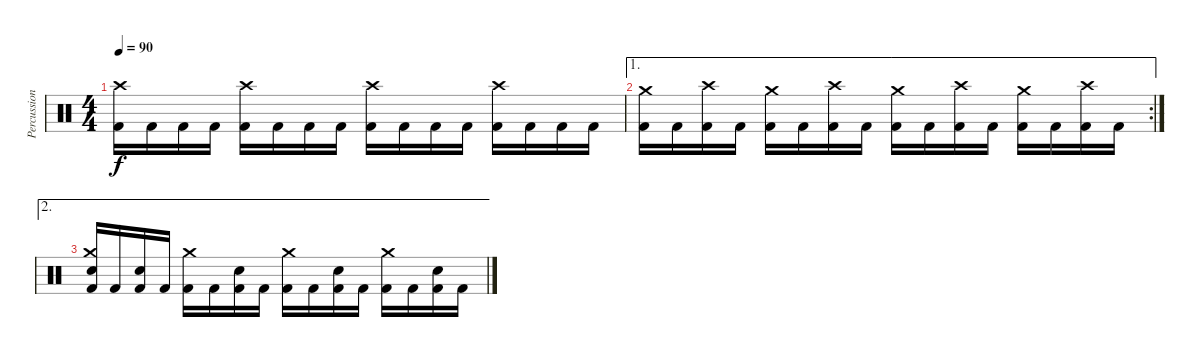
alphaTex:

\track ("Percussion" "Percussion") {instrument percussion}
\staff {score}
\articulation defaults
\ts (4 4)
\tempo 90
\clef neutral
\ks c
("Crash high (hit)" "Kick (hit) 2").16{dy f} "Kick (hit) 2".16 "Kick (hit) 2".16 "Kick (hit) 2".16 ("Crash high (hit)" "Kick (hit) 2").16 "Kick (hit) 2".16 "Kick (hit) 2".16 "Kick (hit) 2".16 ("Crash high (hit)" "Kick (hit) 2").16 "Kick (hit) 2".16 "Kick (hit) 2".16 "Kick (hit) 2".16 ("Crash high (hit)" "Kick (hit) 2").16 "Kick (hit) 2".16 "Kick (hit) 2".16 "Kick (hit) 2".16 |
\ae 1
\rc 2
("Crash medium (hit)" "Kick (hit) 2").16 "Kick (hit) 2".16 ("Crash high (hit)" "Kick (hit) 2").16 "Kick (hit) 2".16 ("Crash medium (hit)" "Kick (hit) 2").16 "Kick (hit) 2".16 ("Crash high (hit)" "Kick (hit) 2").16 "Kick (hit) 2".16 ("Crash medium (hit)" "Kick (hit) 2").16 "Kick (hit) 2".16 ("Crash high (hit)" "Kick (hit) 2").16 "Kick (hit) 2".16 ("Crash medium (hit)" "Kick (hit) 2").16 "Kick (hit) 2".16 ("Crash high (hit)" "Kick (hit) 2").16 "Kick (hit) 2".16 |
\ae 2
("Crash medium (hit)" "Electric Snare (hit)" "Kick (hit) 2").16 "Kick (hit) 2".16 ("Electric Snare (hit)" "Kick (hit) 2").16 "Kick (hit) 2".16 ("Crash medium (hit)" "Kick (hit) 2").16 "Kick (hit) 2".16 ("Electric Snare (hit)" "Kick (hit) 2").16 "Kick (hit) 2".16 ("Crash medium (hit)" "Kick (hit) 2").16 "Kick (hit) 2".16 ("Electric Snare (hit)" "Kick (hit) 2").16 "Kick (hit) 2".16 ("Crash medium (hit)" "Kick (hit) 2").16 "Kick (hit) 2".16 ("Electric Snare (hit)" "Kick (hit) 2").16 "Kick (hit) 2".16
